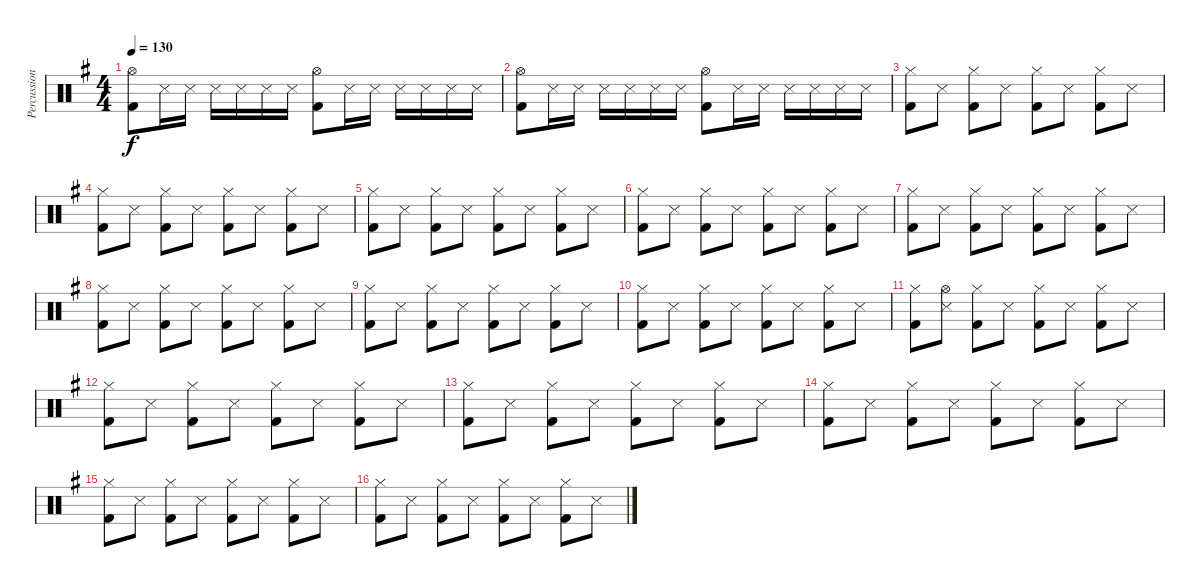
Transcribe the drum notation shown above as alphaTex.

\track ("Percussions" "Percussion") {instrument percussion}
\staff {score}
\articulation defaults
\ts (4 4)
\tempo 130
\clef neutral
\ks g
("Hi-Hat (open)" "Kick (hit) 2").8{dy f} "Snare (side stick) 3".16 "Snare (side stick) 3".16 "Snare (side stick) 3".16 "Snare (side stick) 3".16 "Snare (side stick) 3".16 "Snare (side stick) 3".16 ("Hi-Hat (open)" "Kick (hit) 2").8 "Snare (side stick) 3".16 "Snare (side stick) 3".16 "Snare (side stick) 3".16 "Snare (side stick) 3".16 "Snare (side stick) 3".16 "Snare (side stick) 3".16 |
("Hi-Hat (open)" "Kick (hit) 2").8 "Snare (side stick) 3".16 "Snare (side stick) 3".16 "Snare (side stick) 3".16 "Snare (side stick) 3".16 "Snare (side stick) 3".16 "Snare (side stick) 3".16 ("Hi-Hat (open)" "Kick (hit) 2").8 "Snare (side stick) 3".16 "Snare (side stick) 3".16 "Snare (side stick) 3".16 "Snare (side stick) 3".16 "Snare (side stick) 3".16 "Snare (side stick) 3".16 |
("Hi-Hat (closed)" "Kick (hit) 2").8 "Snare (side stick) 3".8 ("Hi-Hat (closed)" "Kick (hit) 2").8 "Snare (side stick) 3".8 ("Hi-Hat (closed)" "Kick (hit) 2").8 "Snare (side stick) 3".8 ("Hi-Hat (closed)" "Kick (hit) 2").8 "Snare (side stick) 3".8 |
("Hi-Hat (closed)" "Kick (hit) 2").8 "Snare (side stick) 3".8 ("Hi-Hat (closed)" "Kick (hit) 2").8 "Snare (side stick) 3".8 ("Hi-Hat (closed)" "Kick (hit) 2").8 "Snare (side stick) 3".8 ("Hi-Hat (closed)" "Kick (hit) 2").8 "Snare (side stick) 3".8 |
("Hi-Hat (closed)" "Kick (hit) 2").8 "Snare (side stick) 3".8 ("Hi-Hat (closed)" "Kick (hit) 2").8 "Snare (side stick) 3".8 ("Hi-Hat (closed)" "Kick (hit) 2").8 "Snare (side stick) 3".8 ("Hi-Hat (closed)" "Kick (hit) 2").8 "Snare (side stick) 3".8 |
("Hi-Hat (closed)" "Kick (hit) 2").8 "Snare (side stick) 3".8 ("Hi-Hat (closed)" "Kick (hit) 2").8 "Snare (side stick) 3".8 ("Hi-Hat (closed)" "Kick (hit) 2").8 "Snare (side stick) 3".8 ("Hi-Hat (closed)" "Kick (hit) 2").8 "Snare (side stick) 3".8 |
("Hi-Hat (closed)" "Kick (hit) 2").8 "Snare (side stick) 3".8 ("Hi-Hat (closed)" "Kick (hit) 2").8 "Snare (side stick) 3".8 ("Hi-Hat (closed)" "Kick (hit) 2").8 "Snare (side stick) 3".8 ("Hi-Hat (closed)" "Kick (hit) 2").8 "Snare (side stick) 3".8 |
("Hi-Hat (closed)" "Kick (hit) 2").8 "Snare (side stick) 3".8 ("Hi-Hat (closed)" "Kick (hit) 2").8 "Snare (side stick) 3".8 ("Hi-Hat (closed)" "Kick (hit) 2").8 "Snare (side stick) 3".8 ("Hi-Hat (closed)" "Kick (hit) 2").8 "Snare (side stick) 3".8 |
("Hi-Hat (closed)" "Kick (hit) 2").8 "Snare (side stick) 3".8 ("Hi-Hat (closed)" "Kick (hit) 2").8 "Snare (side stick) 3".8 ("Hi-Hat (closed)" "Kick (hit) 2").8 "Snare (side stick) 3".8 ("Hi-Hat (closed)" "Kick (hit) 2").8 "Snare (side stick) 3".8 |
("Hi-Hat (closed)" "Kick (hit) 2").8 "Snare (side stick) 3".8 ("Hi-Hat (closed)" "Kick (hit) 2").8 "Snare (side stick) 3".8 ("Hi-Hat (closed)" "Kick (hit) 2").8 "Snare (side stick) 3".8 ("Hi-Hat (closed)" "Kick (hit) 2").8 "Snare (side stick) 3".8 |
("Hi-Hat (closed)" "Kick (hit) 2").8 ("Hi-Hat (open)" "Snare (side stick) 3").8 ("Hi-Hat (closed)" "Kick (hit) 2").8 "Snare (side stick) 3".8 ("Hi-Hat (closed)" "Kick (hit) 2").8 "Snare (side stick) 3".8 ("Hi-Hat (closed)" "Kick (hit) 2").8 "Snare (side stick) 3".8 |
("Hi-Hat (closed)" "Kick (hit) 2").8 "Snare (side stick) 3".8 ("Hi-Hat (closed)" "Kick (hit) 2").8 "Snare (side stick) 3".8 ("Hi-Hat (closed)" "Kick (hit) 2").8 "Snare (side stick) 3".8 ("Hi-Hat (closed)" "Kick (hit) 2").8 "Snare (side stick) 3".8 |
("Hi-Hat (closed)" "Kick (hit) 2").8 "Snare (side stick) 3".8 ("Hi-Hat (closed)" "Kick (hit) 2").8 "Snare (side stick) 3".8 ("Hi-Hat (closed)" "Kick (hit) 2").8 "Snare (side stick) 3".8 ("Hi-Hat (closed)" "Kick (hit) 2").8 "Snare (side stick) 3".8 |
("Hi-Hat (closed)" "Kick (hit) 2").8 "Snare (side stick) 3".8 ("Hi-Hat (closed)" "Kick (hit) 2").8 "Snare (side stick) 3".8 ("Hi-Hat (closed)" "Kick (hit) 2").8 "Snare (side stick) 3".8 ("Hi-Hat (closed)" "Kick (hit) 2").8 "Snare (side stick) 3".8 |
("Hi-Hat (closed)" "Kick (hit) 2").8 "Snare (side stick) 3".8 ("Hi-Hat (closed)" "Kick (hit) 2").8 "Snare (side stick) 3".8 ("Hi-Hat (closed)" "Kick (hit) 2").8 "Snare (side stick) 3".8 ("Hi-Hat (closed)" "Kick (hit) 2").8 "Snare (side stick) 3".8 |
("Hi-Hat (closed)" "Kick (hit) 2").8 "Snare (side stick) 3".8 ("Hi-Hat (closed)" "Kick (hit) 2").8 "Snare (side stick) 3".8 ("Hi-Hat (closed)" "Kick (hit) 2").8 "Snare (side stick) 3".8 ("Hi-Hat (closed)" "Kick (hit) 2").8 "Snare (side stick) 3".8
